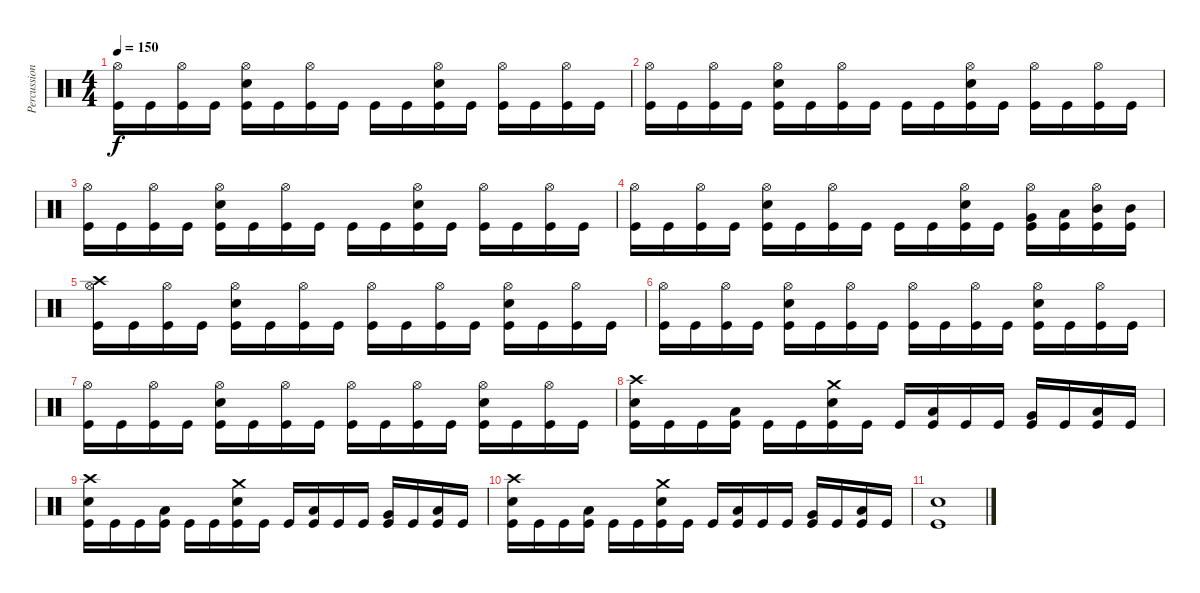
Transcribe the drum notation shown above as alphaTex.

\track ("Percussion" "Percussion") {instrument percussion}
\staff {score}
\articulation defaults
\ts (4 4)
\tempo 150
\clef neutral
\ks c
("Hi-Hat (open)" "Kick (hit)").16{dy f} "Kick (hit)".16 ("Hi-Hat (open)" "Kick (hit)").16 "Kick (hit)".16 ("Hi-Hat (open)" "Snare (hit) 2" "Kick (hit)").16 "Kick (hit)".16 ("Hi-Hat (open)" "Kick (hit)").16 "Kick (hit)".16 "Kick (hit)".16 "Kick (hit)".16 ("Hi-Hat (open)" "Snare (hit) 2" "Kick (hit)").16 "Kick (hit)".16 ("Hi-Hat (open)" "Kick (hit)").16 "Kick (hit)".16 ("Hi-Hat (open)" "Kick (hit)").16 "Kick (hit)".16 |
("Hi-Hat (open)" "Kick (hit)").16 "Kick (hit)".16 ("Hi-Hat (open)" "Kick (hit)").16 "Kick (hit)".16 ("Hi-Hat (open)" "Snare (hit) 2" "Kick (hit)").16 "Kick (hit)".16 ("Hi-Hat (open)" "Kick (hit)").16 "Kick (hit)".16 "Kick (hit)".16 "Kick (hit)".16 ("Hi-Hat (open)" "Snare (hit) 2" "Kick (hit)").16 "Kick (hit)".16 ("Hi-Hat (open)" "Kick (hit)").16 "Kick (hit)".16 ("Hi-Hat (open)" "Kick (hit)").16 "Kick (hit)".16 |
("Hi-Hat (open)" "Kick (hit)").16 "Kick (hit)".16 ("Hi-Hat (open)" "Kick (hit)").16 "Kick (hit)".16 ("Hi-Hat (open)" "Snare (hit) 2" "Kick (hit)").16 "Kick (hit)".16 ("Hi-Hat (open)" "Kick (hit)").16 "Kick (hit)".16 "Kick (hit)".16 "Kick (hit)".16 ("Hi-Hat (open)" "Snare (hit) 2" "Kick (hit)").16 "Kick (hit)".16 ("Hi-Hat (open)" "Kick (hit)").16 "Kick (hit)".16 ("Hi-Hat (open)" "Kick (hit)").16 "Kick (hit)".16 |
("Hi-Hat (open)" "Kick (hit)").16 "Kick (hit)".16 ("Hi-Hat (open)" "Kick (hit)").16 "Kick (hit)".16 ("Hi-Hat (open)" "Snare (hit) 2" "Kick (hit)").16 "Kick (hit)".16 ("Hi-Hat (open)" "Kick (hit)").16 "Kick (hit)".16 "Kick (hit)".16 "Kick (hit)".16 ("Hi-Hat (open)" "Snare (hit) 2" "Kick (hit)").16 "Kick (hit)".16 ("Hi-Hat (open)" "Very Low Tom (hit)" "Kick (hit)").16 ("Low Tom (hit)" "Kick (hit)").16 ("Hi-Hat (open)" "Mid Tom (hit)" "Kick (hit)").16 ("Mid Tom (hit)" "Kick (hit)").16 |
("Hi-Hat (open)" "Crash high (hit)" "Kick (hit)").16 "Kick (hit)".16 ("Hi-Hat (open)" "Kick (hit)").16 "Kick (hit)".16 ("Hi-Hat (open)" "Snare (hit) 2" "Kick (hit)").16 "Kick (hit)".16 ("Hi-Hat (open)" "Kick (hit)").16 "Kick (hit)".16 ("Hi-Hat (open)" "Kick (hit)").16 "Kick (hit)".16 ("Hi-Hat (open)" "Kick (hit)").16 "Kick (hit)".16 ("Hi-Hat (open)" "Snare (hit) 2" "Kick (hit)").16 "Kick (hit)".16 ("Hi-Hat (open)" "Kick (hit)").16 "Kick (hit)".16 |
("Hi-Hat (open)" "Kick (hit)").16 "Kick (hit)".16 ("Hi-Hat (open)" "Kick (hit)").16 "Kick (hit)".16 ("Hi-Hat (open)" "Snare (hit) 2" "Kick (hit)").16 "Kick (hit)".16 ("Hi-Hat (open)" "Kick (hit)").16 "Kick (hit)".16 ("Hi-Hat (open)" "Kick (hit)").16 "Kick (hit)".16 ("Hi-Hat (open)" "Kick (hit)").16 "Kick (hit)".16 ("Hi-Hat (open)" "Snare (hit) 2" "Kick (hit)").16 "Kick (hit)".16 ("Hi-Hat (open)" "Kick (hit)").16 "Kick (hit)".16 |
("Hi-Hat (open)" "Kick (hit)").16 "Kick (hit)".16 ("Hi-Hat (open)" "Kick (hit)").16 "Kick (hit)".16 ("Hi-Hat (open)" "Snare (hit) 2" "Kick (hit)").16 "Kick (hit)".16 ("Hi-Hat (open)" "Kick (hit)").16 "Kick (hit)".16 ("Hi-Hat (open)" "Kick (hit)").16 "Kick (hit)".16 ("Hi-Hat (open)" "Kick (hit)").16 "Kick (hit)".16 ("Hi-Hat (open)" "Snare (hit) 2" "Kick (hit)").16 "Kick (hit)".16 ("Hi-Hat (open)" "Kick (hit)").16 "Kick (hit)".16 |
("Crash high (hit)" "Snare (hit) 2" "Kick (hit)").16 "Kick (hit)".16 "Kick (hit)".16 ("Low Floor Tom (hit)" "Kick (hit)").16 "Kick (hit)".16 "Kick (hit)".16 ("Crash medium (hit)" "Snare (hit) 2" "Kick (hit)").16 "Kick (hit)".16 "Kick (hit)".16 ("Low Floor Tom (hit)" "Kick (hit)").16 "Kick (hit)".16 "Kick (hit)".16 ("Very Low Tom (hit)" "Kick (hit)").16 "Kick (hit)".16 ("Low Floor Tom (hit)" "Kick (hit)").16 "Kick (hit)".16 |
("Crash high (hit)" "Snare (hit) 2" "Kick (hit)").16 "Kick (hit)".16 "Kick (hit)".16 ("Low Floor Tom (hit)" "Kick (hit)").16 "Kick (hit)".16 "Kick (hit)".16 ("Crash medium (hit)" "Snare (hit) 2" "Kick (hit)").16 "Kick (hit)".16 "Kick (hit)".16 ("Low Floor Tom (hit)" "Kick (hit)").16 "Kick (hit)".16 "Kick (hit)".16 ("Very Low Tom (hit)" "Kick (hit)").16 "Kick (hit)".16 ("Low Floor Tom (hit)" "Kick (hit)").16 "Kick (hit)".16 |
("Crash high (hit)" "Snare (hit) 2" "Kick (hit)").16 "Kick (hit)".16 "Kick (hit)".16 ("Low Floor Tom (hit)" "Kick (hit)").16 "Kick (hit)".16 "Kick (hit)".16 ("Crash medium (hit)" "Snare (hit) 2" "Kick (hit)").16 "Kick (hit)".16 "Kick (hit)".16 ("Low Floor Tom (hit)" "Kick (hit)").16 "Kick (hit)".16 "Kick (hit)".16 ("Very Low Tom (hit)" "Kick (hit)").16 "Kick (hit)".16 ("Low Floor Tom (hit)" "Kick (hit)").16 "Kick (hit)".16 |
("Snare (hit) 2" "Kick (hit)").1
